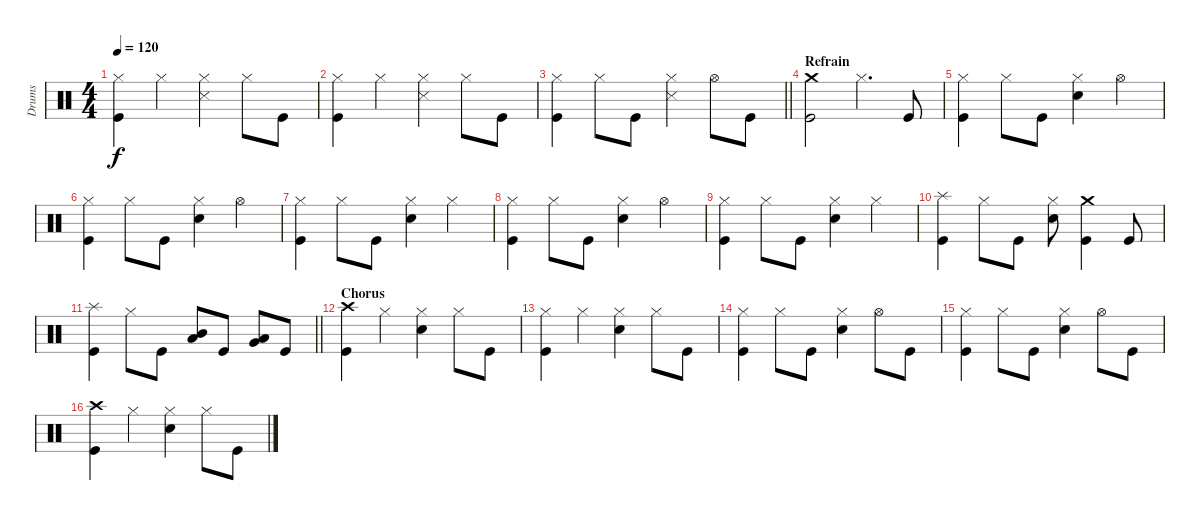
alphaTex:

\track ("Drums" "Drums") {instrument percussion}
\staff {score}
\articulation defaults
\ts (4 4)
\tempo 120
\clef neutral
\ks c
("Kick (hit)" "Hi-Hat (closed)").4{dy f} "Hi-Hat (closed)".4 ("Snare (side stick) 3" "Hi-Hat (closed)").4 "Hi-Hat (closed)".8 "Kick (hit)".8 |
("Kick (hit)" "Hi-Hat (closed)").4 "Hi-Hat (closed)".4 ("Snare (side stick) 3" "Hi-Hat (closed)").4 "Hi-Hat (closed)".8 "Kick (hit)".8 |
\barLineRight lightlight
("Kick (hit)" "Hi-Hat (closed)").4 "Hi-Hat (closed)".8 "Kick (hit)".8 ("Snare (side stick) 3" "Hi-Hat (closed)").4 "Hi-Hat (open)".8 "Kick (hit)".8 |
\section ("" "Refrain")
("Kick (hit)" "Crash medium (hit)").2 "Hi-Hat (closed)".4{d} "Kick (hit)".8 |
("Kick (hit)" "Hi-Hat (closed)").4 "Hi-Hat (closed)".8 "Kick (hit)".8 ("Snare (hit) 2" "Hi-Hat (closed)").4 "Hi-Hat (open)".4 |
("Kick (hit)" "Hi-Hat (closed)").4 "Hi-Hat (closed)".8 "Kick (hit)".8 ("Snare (hit) 2" "Hi-Hat (closed)").4 "Hi-Hat (open)".4 |
("Kick (hit)" "Hi-Hat (closed)").4 "Hi-Hat (closed)".8 "Kick (hit)".8 ("Snare (hit) 2" "Hi-Hat (closed)").4 "Hi-Hat (closed)".4 |
("Kick (hit)" "Hi-Hat (closed)").4 "Hi-Hat (closed)".8 "Kick (hit)".8 ("Snare (hit) 2" "Hi-Hat (closed)").4 "Hi-Hat (open)".4 |
("Kick (hit)" "Hi-Hat (closed)").4 "Hi-Hat (closed)".8 "Kick (hit)".8 ("Snare (hit) 2" "Hi-Hat (closed)").4 "Hi-Hat (closed)".4 |
("Kick (hit)" "Splash (hit)").4 "Hi-Hat (closed)".8 "Kick (hit)".8 ("Snare (hit) 2" "Hi-Hat (closed)").8 ("Kick (hit)" "Crash medium (hit)").4 "Kick (hit)".8 |
\barLineRight lightlight
("Kick (hit)" "Splash (hit)").4 "Hi-Hat (closed)".8 "Kick (hit)".8 ("Low Tom (hit)" "Mid Tom (hit)").8 "Kick (hit)".8 ("Very Low Tom (hit)" "Low Tom (hit)").8 "Kick (hit)".8 |
\section ("" "Chorus")
("Kick (hit)" "Crash high (hit)").4 "Hi-Hat (closed)".4 ("Snare (hit) 2" "Hi-Hat (closed)").4 "Hi-Hat (closed)".8 "Kick (hit)".8 |
("Kick (hit)" "Hi-Hat (closed)").4 "Hi-Hat (closed)".4 ("Snare (hit) 2" "Hi-Hat (closed)").4 "Hi-Hat (closed)".8 "Kick (hit)".8 |
("Kick (hit)" "Hi-Hat (closed)").4 "Hi-Hat (closed)".8 "Kick (hit)".8 ("Snare (hit) 2" "Hi-Hat (closed)").4 "Hi-Hat (open)".8 "Kick (hit)".8 |
("Kick (hit)" "Hi-Hat (closed)").4 "Hi-Hat (closed)".8 "Kick (hit)".8 ("Snare (hit) 2" "Hi-Hat (closed)").4 "Hi-Hat (open)".8 "Kick (hit)".8 |
("Kick (hit)" "Crash high (hit)").4 "Hi-Hat (closed)".4 ("Snare (hit) 2" "Hi-Hat (closed)").4 "Hi-Hat (closed)".8 "Kick (hit)".8
